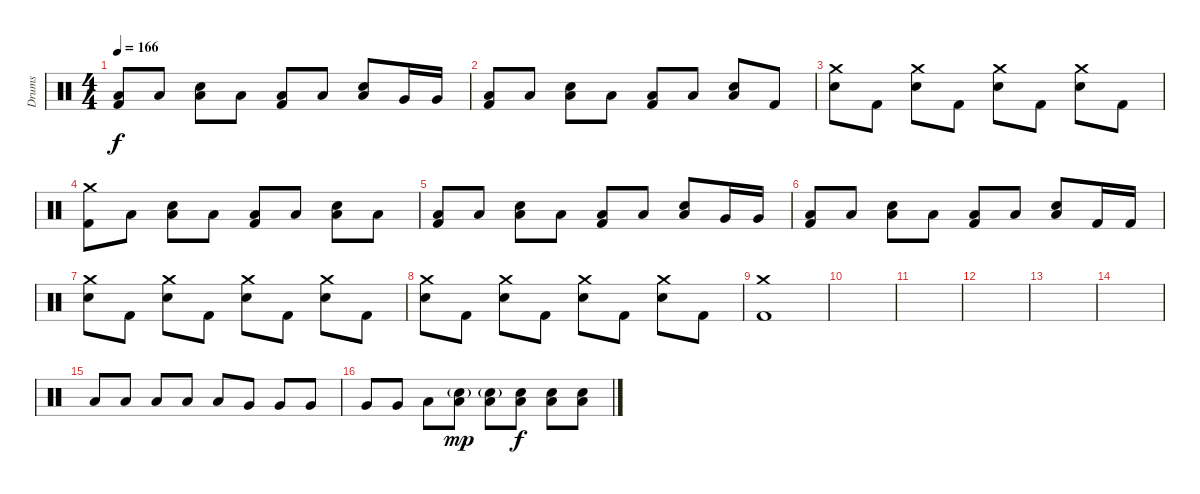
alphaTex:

\track ("Drums" "Drums") {instrument percussion}
\staff {score}
\articulation defaults
\ts (4 4)
\tempo 166
\clef neutral
\ks c
("Low Floor Tom (hit)" "Kick (hit) 2").8{dy f} "Low Floor Tom (hit)".8 ("Low Floor Tom (hit)" "Electric Snare (hit)").8 "Low Floor Tom (hit)".8 ("Low Floor Tom (hit)" "Kick (hit) 2").8 "Low Floor Tom (hit)".8 ("Low Floor Tom (hit)" "Electric Snare (hit)").8 "Very Low Tom (hit)".16 "Very Low Tom (hit)".16 |
("Low Floor Tom (hit)" "Kick (hit) 2").8 "Low Floor Tom (hit)".8 ("Low Floor Tom (hit)" "Electric Snare (hit)").8 "Low Floor Tom (hit)".8 ("Low Floor Tom (hit)" "Kick (hit) 2").8 "Low Floor Tom (hit)".8 ("Low Floor Tom (hit)" "Electric Snare (hit)").8 "Kick (hit) 2".8 |
("Crash medium (hit)" "Electric Snare (hit)").8 "Kick (hit) 2".8 ("Crash medium (hit)" "Electric Snare (hit)").8 "Kick (hit) 2".8 ("Crash medium (hit)" "Electric Snare (hit)").8 "Kick (hit) 2".8 ("Crash medium (hit)" "Electric Snare (hit)").8 "Kick (hit) 2".8 |
("Crash medium (hit)" "Kick (hit) 2").8 "Low Floor Tom (hit)".8 ("Low Floor Tom (hit)" "Electric Snare (hit)").8 "Low Floor Tom (hit)".8 ("Low Floor Tom (hit)" "Kick (hit) 2").8 "Low Floor Tom (hit)".8 ("Low Floor Tom (hit)" "Electric Snare (hit)").8 "Low Floor Tom (hit)".8 |
("Low Floor Tom (hit)" "Kick (hit) 2").8 "Low Floor Tom (hit)".8 ("Low Floor Tom (hit)" "Electric Snare (hit)").8 "Low Floor Tom (hit)".8 ("Low Floor Tom (hit)" "Kick (hit) 2").8 "Low Floor Tom (hit)".8 ("Low Floor Tom (hit)" "Electric Snare (hit)").8 "Very Low Tom (hit)".16 "Very Low Tom (hit)".16 |
("Low Floor Tom (hit)" "Kick (hit) 2").8 "Low Floor Tom (hit)".8 ("Low Floor Tom (hit)" "Electric Snare (hit)").8 "Low Floor Tom (hit)".8 ("Low Floor Tom (hit)" "Kick (hit) 2").8 "Low Floor Tom (hit)".8 ("Low Floor Tom (hit)" "Electric Snare (hit)").8 "Kick (hit) 2".16 "Kick (hit) 2".16 |
("Crash medium (hit)" "Electric Snare (hit)").8 "Kick (hit) 2".8 ("Crash medium (hit)" "Electric Snare (hit)").8 "Kick (hit) 2".8 ("Crash medium (hit)" "Electric Snare (hit)").8 "Kick (hit) 2".8 ("Crash medium (hit)" "Electric Snare (hit)").8 "Kick (hit) 2".8 |
("Crash medium (hit)" "Electric Snare (hit)").8 "Kick (hit) 2".8 ("Crash medium (hit)" "Electric Snare (hit)").8 "Kick (hit) 2".8 ("Crash medium (hit)" "Electric Snare (hit)").8 "Kick (hit) 2".8 ("Crash medium (hit)" "Electric Snare (hit)").8 "Kick (hit) 2".8 |
("Crash medium (hit)" "Kick (hit) 2").1 |
|
|
|
|
|
"Low Floor Tom (hit)".8 "Low Floor Tom (hit)".8 "Low Floor Tom (hit)".8 "Low Floor Tom (hit)".8 "Low Floor Tom (hit)".8 "Very Low Tom (hit)".8 "Very Low Tom (hit)".8 "Very Low Tom (hit)".8 |
"Very Low Tom (hit)".8 "Very Low Tom (hit)".8 "Low Tom (hit)".8 ("Electric Snare (hit)"{g} "Low Tom (hit)").8{dy mp} ("Electric Snare (hit)"{g} "Low Tom (hit)").8 ("Electric Snare (hit)" "Low Tom (hit)").8{dy f} ("Electric Snare (hit)" "Low Tom (hit)").8 ("Electric Snare (hit)" "Low Tom (hit)").8
